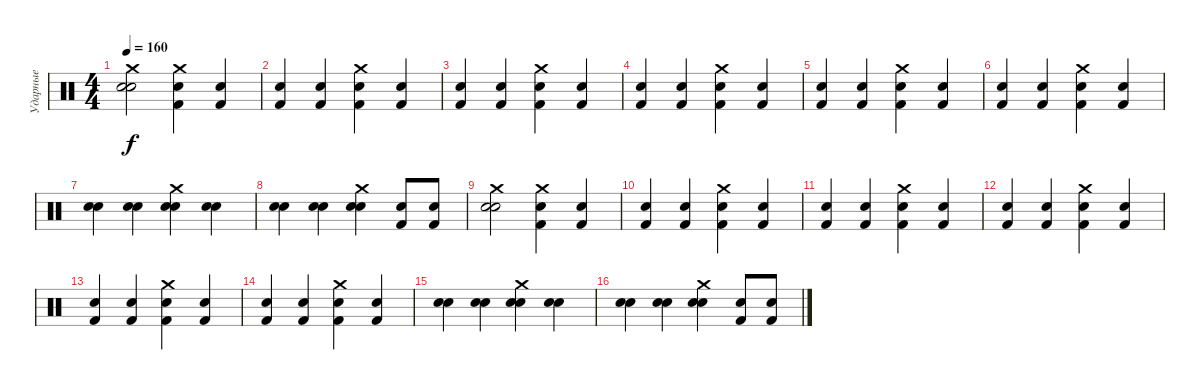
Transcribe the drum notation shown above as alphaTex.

\track ("Ударные" "Ударные") {instrument percussion}
\staff {score}
\articulation defaults
\ts (4 4)
\tempo 240
\tempo 160
\clef neutral
\ks c
("Crash medium (hit)" "Snare (hit) 2" "Snare (hit) 2").2{dy f} ("Crash medium (hit)" "Kick (hit) 2" "Snare (hit) 2").4 ("Kick (hit) 2" "Snare (hit) 2").4 |
("Kick (hit) 2" "Snare (hit) 2").4 ("Snare (hit) 2" "Kick (hit) 2").4 ("Crash medium (hit)" "Snare (hit) 2" "Kick (hit) 2").4 ("Snare (hit) 2" "Kick (hit) 2").4 |
("Kick (hit) 2" "Snare (hit) 2").4 ("Kick (hit) 2" "Snare (hit) 2").4 ("Crash medium (hit)" "Kick (hit) 2" "Snare (hit) 2").4 ("Kick (hit) 2" "Snare (hit) 2").4 |
("Kick (hit) 2" "Snare (hit) 2").4 ("Kick (hit) 2" "Snare (hit) 2").4 ("Crash medium (hit)" "Snare (hit) 2" "Kick (hit) 2").4 ("Snare (hit) 2" "Kick (hit) 2").4 |
("Kick (hit) 2" "Snare (hit) 2").4 ("Kick (hit) 2" "Snare (hit) 2").4 ("Crash medium (hit)" "Kick (hit) 2" "Snare (hit) 2").4 ("Kick (hit) 2" "Snare (hit) 2").4 |
("Kick (hit) 2" "Snare (hit) 2").4 ("Kick (hit) 2" "Snare (hit) 2").4 ("Crash medium (hit)" "Snare (hit) 2" "Kick (hit) 2").4 ("Snare (hit) 2" "Kick (hit) 2").4 |
("Snare (hit) 2" "Snare (hit) 2").4 ("Snare (hit) 2" "Snare (hit) 2").4 ("Crash medium (hit)" "Snare (hit) 2" "Snare (hit) 2").4 ("Snare (hit) 2" "Snare (hit) 2").4 |
("Snare (hit) 2" "Snare (hit) 2").4 ("Snare (hit) 2" "Snare (hit) 2").4 ("Crash medium (hit)" "Snare (hit) 2" "Snare (hit) 2").4 ("Snare (hit) 2" "Kick (hit) 2").8 ("Snare (hit) 2" "Kick (hit) 2").8 |
("Crash medium (hit)" "Snare (hit) 2" "Snare (hit) 2").2 ("Crash medium (hit)" "Kick (hit) 2" "Snare (hit) 2").4 ("Kick (hit) 2" "Snare (hit) 2").4 |
("Kick (hit) 2" "Snare (hit) 2").4 ("Snare (hit) 2" "Kick (hit) 2").4 ("Crash medium (hit)" "Snare (hit) 2" "Kick (hit) 2").4 ("Snare (hit) 2" "Kick (hit) 2").4 |
("Kick (hit) 2" "Snare (hit) 2").4 ("Kick (hit) 2" "Snare (hit) 2").4 ("Crash medium (hit)" "Kick (hit) 2" "Snare (hit) 2").4 ("Kick (hit) 2" "Snare (hit) 2").4 |
("Kick (hit) 2" "Snare (hit) 2").4 ("Kick (hit) 2" "Snare (hit) 2").4 ("Crash medium (hit)" "Snare (hit) 2" "Kick (hit) 2").4 ("Snare (hit) 2" "Kick (hit) 2").4 |
("Kick (hit) 2" "Snare (hit) 2").4 ("Kick (hit) 2" "Snare (hit) 2").4 ("Crash medium (hit)" "Kick (hit) 2" "Snare (hit) 2").4 ("Kick (hit) 2" "Snare (hit) 2").4 |
("Kick (hit) 2" "Snare (hit) 2").4 ("Kick (hit) 2" "Snare (hit) 2").4 ("Crash medium (hit)" "Snare (hit) 2" "Kick (hit) 2").4 ("Snare (hit) 2" "Kick (hit) 2").4 |
("Snare (hit) 2" "Snare (hit) 2").4 ("Snare (hit) 2" "Snare (hit) 2").4 ("Crash medium (hit)" "Snare (hit) 2" "Snare (hit) 2").4 ("Snare (hit) 2" "Snare (hit) 2").4 |
("Snare (hit) 2" "Snare (hit) 2").4 ("Snare (hit) 2" "Snare (hit) 2").4 ("Crash medium (hit)" "Snare (hit) 2" "Snare (hit) 2").4 ("Snare (hit) 2" "Kick (hit) 2").8 ("Snare (hit) 2" "Kick (hit) 2").8
